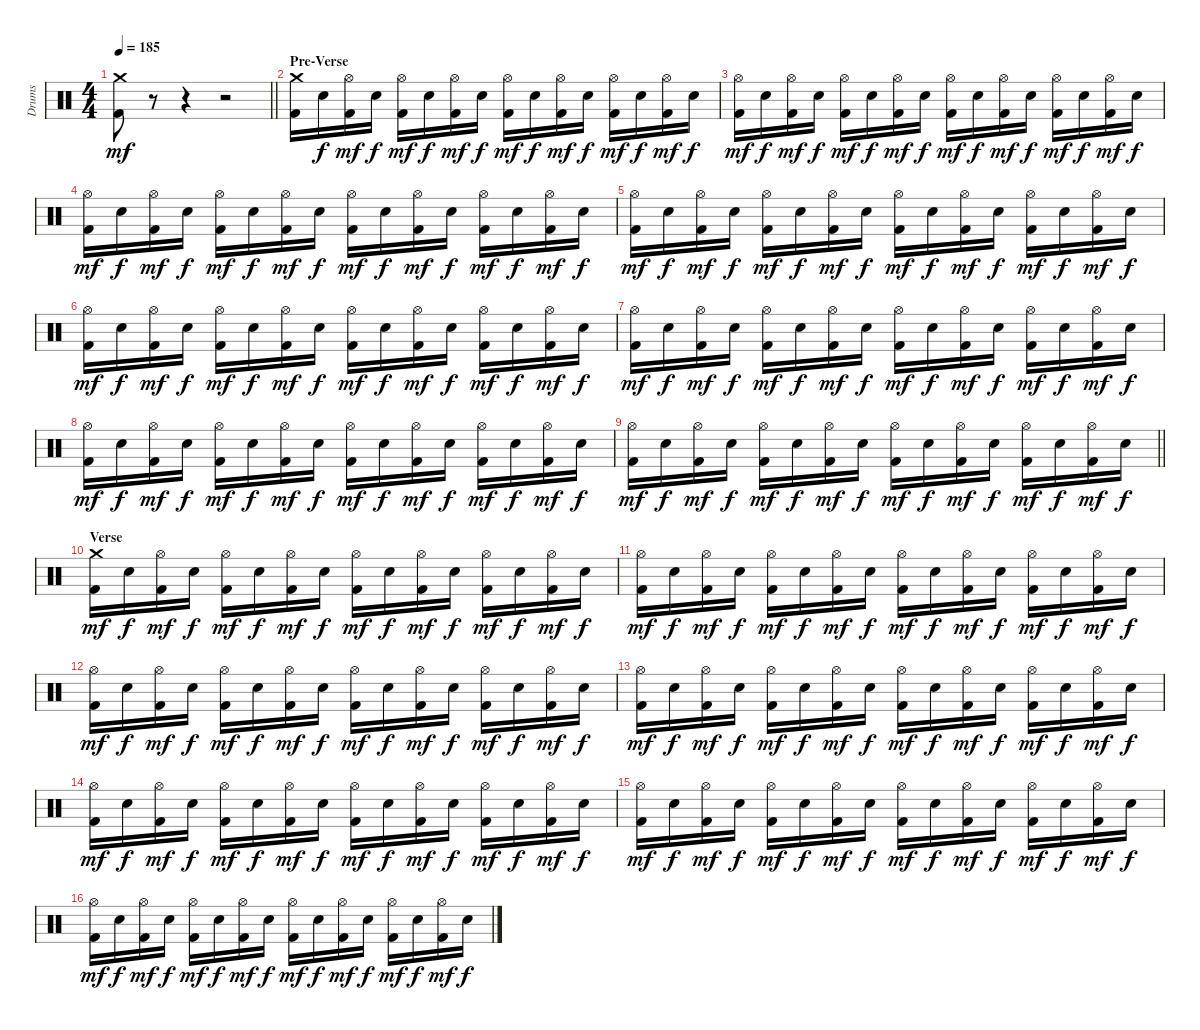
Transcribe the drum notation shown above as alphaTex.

\track ("Drums" "Drums") {instrument percussion}
\staff {score}
\articulation defaults
\ts (4 4)
\tempo 185
\clef neutral
\barLineRight lightlight
\ks c
("Crash medium (hit)"{pm} "Kick (hit) 2").8{dy mf} r.8 r.4 r.2 |
\section ("" "Pre-Verse")
("Crash medium (hit)" "Kick (hit) 2").16 "Electric Snare (hit)".16{dy f} ("Hi-Hat (open)" "Kick (hit) 2").16{dy mf} "Electric Snare (hit)".16{dy f} ("Hi-Hat (open)" "Kick (hit) 2").16{dy mf} "Electric Snare (hit)".16{dy f} ("Hi-Hat (open)" "Kick (hit) 2").16{dy mf} "Electric Snare (hit)".16{dy f} ("Hi-Hat (open)" "Kick (hit) 2").16{dy mf} "Electric Snare (hit)".16{dy f} ("Hi-Hat (open)" "Kick (hit) 2").16{dy mf} "Electric Snare (hit)".16{dy f} ("Hi-Hat (open)" "Kick (hit) 2").16{dy mf} "Electric Snare (hit)".16{dy f} ("Hi-Hat (open)" "Kick (hit) 2").16{dy mf} "Electric Snare (hit)".16{dy f} |
("Hi-Hat (open)" "Kick (hit) 2").16{dy mf} "Electric Snare (hit)".16{dy f} ("Hi-Hat (open)" "Kick (hit) 2").16{dy mf} "Electric Snare (hit)".16{dy f} ("Hi-Hat (open)" "Kick (hit) 2").16{dy mf} "Electric Snare (hit)".16{dy f} ("Hi-Hat (open)" "Kick (hit) 2").16{dy mf} "Electric Snare (hit)".16{dy f} ("Hi-Hat (open)" "Kick (hit) 2").16{dy mf} "Electric Snare (hit)".16{dy f} ("Hi-Hat (open)" "Kick (hit) 2").16{dy mf} "Electric Snare (hit)".16{dy f} ("Hi-Hat (open)" "Kick (hit) 2").16{dy mf} "Electric Snare (hit)".16{dy f} ("Hi-Hat (open)" "Kick (hit) 2").16{dy mf} "Electric Snare (hit)".16{dy f} |
("Hi-Hat (open)" "Kick (hit) 2").16{dy mf} "Electric Snare (hit)".16{dy f} ("Hi-Hat (open)" "Kick (hit) 2").16{dy mf} "Electric Snare (hit)".16{dy f} ("Hi-Hat (open)" "Kick (hit) 2").16{dy mf} "Electric Snare (hit)".16{dy f} ("Hi-Hat (open)" "Kick (hit) 2").16{dy mf} "Electric Snare (hit)".16{dy f} ("Hi-Hat (open)" "Kick (hit) 2").16{dy mf} "Electric Snare (hit)".16{dy f} ("Hi-Hat (open)" "Kick (hit) 2").16{dy mf} "Electric Snare (hit)".16{dy f} ("Hi-Hat (open)" "Kick (hit) 2").16{dy mf} "Electric Snare (hit)".16{dy f} ("Hi-Hat (open)" "Kick (hit) 2").16{dy mf} "Electric Snare (hit)".16{dy f} |
("Hi-Hat (open)" "Kick (hit) 2").16{dy mf} "Electric Snare (hit)".16{dy f} ("Hi-Hat (open)" "Kick (hit) 2").16{dy mf} "Electric Snare (hit)".16{dy f} ("Hi-Hat (open)" "Kick (hit) 2").16{dy mf} "Electric Snare (hit)".16{dy f} ("Hi-Hat (open)" "Kick (hit) 2").16{dy mf} "Electric Snare (hit)".16{dy f} ("Hi-Hat (open)" "Kick (hit) 2").16{dy mf} "Electric Snare (hit)".16{dy f} ("Hi-Hat (open)" "Kick (hit) 2").16{dy mf} "Electric Snare (hit)".16{dy f} ("Hi-Hat (open)" "Kick (hit) 2").16{dy mf} "Electric Snare (hit)".16{dy f} ("Hi-Hat (open)" "Kick (hit) 2").16{dy mf} "Electric Snare (hit)".16{dy f} |
("Hi-Hat (open)" "Kick (hit) 2").16{dy mf} "Electric Snare (hit)".16{dy f} ("Hi-Hat (open)" "Kick (hit) 2").16{dy mf} "Electric Snare (hit)".16{dy f} ("Hi-Hat (open)" "Kick (hit) 2").16{dy mf} "Electric Snare (hit)".16{dy f} ("Hi-Hat (open)" "Kick (hit) 2").16{dy mf} "Electric Snare (hit)".16{dy f} ("Hi-Hat (open)" "Kick (hit) 2").16{dy mf} "Electric Snare (hit)".16{dy f} ("Hi-Hat (open)" "Kick (hit) 2").16{dy mf} "Electric Snare (hit)".16{dy f} ("Hi-Hat (open)" "Kick (hit) 2").16{dy mf} "Electric Snare (hit)".16{dy f} ("Hi-Hat (open)" "Kick (hit) 2").16{dy mf} "Electric Snare (hit)".16{dy f} |
("Hi-Hat (open)" "Kick (hit) 2").16{dy mf} "Electric Snare (hit)".16{dy f} ("Hi-Hat (open)" "Kick (hit) 2").16{dy mf} "Electric Snare (hit)".16{dy f} ("Hi-Hat (open)" "Kick (hit) 2").16{dy mf} "Electric Snare (hit)".16{dy f} ("Hi-Hat (open)" "Kick (hit) 2").16{dy mf} "Electric Snare (hit)".16{dy f} ("Hi-Hat (open)" "Kick (hit) 2").16{dy mf} "Electric Snare (hit)".16{dy f} ("Hi-Hat (open)" "Kick (hit) 2").16{dy mf} "Electric Snare (hit)".16{dy f} ("Hi-Hat (open)" "Kick (hit) 2").16{dy mf} "Electric Snare (hit)".16{dy f} ("Hi-Hat (open)" "Kick (hit) 2").16{dy mf} "Electric Snare (hit)".16{dy f} |
("Hi-Hat (open)" "Kick (hit) 2").16{dy mf} "Electric Snare (hit)".16{dy f} ("Hi-Hat (open)" "Kick (hit) 2").16{dy mf} "Electric Snare (hit)".16{dy f} ("Hi-Hat (open)" "Kick (hit) 2").16{dy mf} "Electric Snare (hit)".16{dy f} ("Hi-Hat (open)" "Kick (hit) 2").16{dy mf} "Electric Snare (hit)".16{dy f} ("Hi-Hat (open)" "Kick (hit) 2").16{dy mf} "Electric Snare (hit)".16{dy f} ("Hi-Hat (open)" "Kick (hit) 2").16{dy mf} "Electric Snare (hit)".16{dy f} ("Hi-Hat (open)" "Kick (hit) 2").16{dy mf} "Electric Snare (hit)".16{dy f} ("Hi-Hat (open)" "Kick (hit) 2").16{dy mf} "Electric Snare (hit)".16{dy f} |
\barLineRight lightlight
("Hi-Hat (open)" "Kick (hit) 2").16{dy mf} "Electric Snare (hit)".16{dy f} ("Hi-Hat (open)" "Kick (hit) 2").16{dy mf} "Electric Snare (hit)".16{dy f} ("Hi-Hat (open)" "Kick (hit) 2").16{dy mf} "Electric Snare (hit)".16{dy f} ("Hi-Hat (open)" "Kick (hit) 2").16{dy mf} "Electric Snare (hit)".16{dy f} ("Hi-Hat (open)" "Kick (hit) 2").16{dy mf} "Electric Snare (hit)".16{dy f} ("Hi-Hat (open)" "Kick (hit) 2").16{dy mf} "Electric Snare (hit)".16{dy f} ("Hi-Hat (open)" "Kick (hit) 2").16{dy mf} "Electric Snare (hit)".16{dy f} ("Hi-Hat (open)" "Kick (hit) 2").16{dy mf} "Electric Snare (hit)".16{dy f} |
\section ("" "Verse")
("Crash medium (hit)" "Kick (hit) 2").16{dy mf} "Electric Snare (hit)".16{dy f} ("Hi-Hat (open)" "Kick (hit) 2").16{dy mf} "Electric Snare (hit)".16{dy f} ("Hi-Hat (open)" "Kick (hit) 2").16{dy mf} "Electric Snare (hit)".16{dy f} ("Hi-Hat (open)" "Kick (hit) 2").16{dy mf} "Electric Snare (hit)".16{dy f} ("Hi-Hat (open)" "Kick (hit) 2").16{dy mf} "Electric Snare (hit)".16{dy f} ("Hi-Hat (open)" "Kick (hit) 2").16{dy mf} "Electric Snare (hit)".16{dy f} ("Hi-Hat (open)" "Kick (hit) 2").16{dy mf} "Electric Snare (hit)".16{dy f} ("Hi-Hat (open)" "Kick (hit) 2").16{dy mf} "Electric Snare (hit)".16{dy f} |
("Hi-Hat (open)" "Kick (hit) 2").16{dy mf} "Electric Snare (hit)".16{dy f} ("Hi-Hat (open)" "Kick (hit) 2").16{dy mf} "Electric Snare (hit)".16{dy f} ("Hi-Hat (open)" "Kick (hit) 2").16{dy mf} "Electric Snare (hit)".16{dy f} ("Hi-Hat (open)" "Kick (hit) 2").16{dy mf} "Electric Snare (hit)".16{dy f} ("Hi-Hat (open)" "Kick (hit) 2").16{dy mf} "Electric Snare (hit)".16{dy f} ("Hi-Hat (open)" "Kick (hit) 2").16{dy mf} "Electric Snare (hit)".16{dy f} ("Hi-Hat (open)" "Kick (hit) 2").16{dy mf} "Electric Snare (hit)".16{dy f} ("Hi-Hat (open)" "Kick (hit) 2").16{dy mf} "Electric Snare (hit)".16{dy f} |
("Hi-Hat (open)" "Kick (hit) 2").16{dy mf} "Electric Snare (hit)".16{dy f} ("Hi-Hat (open)" "Kick (hit) 2").16{dy mf} "Electric Snare (hit)".16{dy f} ("Hi-Hat (open)" "Kick (hit) 2").16{dy mf} "Electric Snare (hit)".16{dy f} ("Hi-Hat (open)" "Kick (hit) 2").16{dy mf} "Electric Snare (hit)".16{dy f} ("Hi-Hat (open)" "Kick (hit) 2").16{dy mf} "Electric Snare (hit)".16{dy f} ("Hi-Hat (open)" "Kick (hit) 2").16{dy mf} "Electric Snare (hit)".16{dy f} ("Hi-Hat (open)" "Kick (hit) 2").16{dy mf} "Electric Snare (hit)".16{dy f} ("Hi-Hat (open)" "Kick (hit) 2").16{dy mf} "Electric Snare (hit)".16{dy f} |
("Hi-Hat (open)" "Kick (hit) 2").16{dy mf} "Electric Snare (hit)".16{dy f} ("Hi-Hat (open)" "Kick (hit) 2").16{dy mf} "Electric Snare (hit)".16{dy f} ("Hi-Hat (open)" "Kick (hit) 2").16{dy mf} "Electric Snare (hit)".16{dy f} ("Hi-Hat (open)" "Kick (hit) 2").16{dy mf} "Electric Snare (hit)".16{dy f} ("Hi-Hat (open)" "Kick (hit) 2").16{dy mf} "Electric Snare (hit)".16{dy f} ("Hi-Hat (open)" "Kick (hit) 2").16{dy mf} "Electric Snare (hit)".16{dy f} ("Hi-Hat (open)" "Kick (hit) 2").16{dy mf} "Electric Snare (hit)".16{dy f} ("Hi-Hat (open)" "Kick (hit) 2").16{dy mf} "Electric Snare (hit)".16{dy f} |
("Hi-Hat (open)" "Kick (hit) 2").16{dy mf} "Electric Snare (hit)".16{dy f} ("Hi-Hat (open)" "Kick (hit) 2").16{dy mf} "Electric Snare (hit)".16{dy f} ("Hi-Hat (open)" "Kick (hit) 2").16{dy mf} "Electric Snare (hit)".16{dy f} ("Hi-Hat (open)" "Kick (hit) 2").16{dy mf} "Electric Snare (hit)".16{dy f} ("Hi-Hat (open)" "Kick (hit) 2").16{dy mf} "Electric Snare (hit)".16{dy f} ("Hi-Hat (open)" "Kick (hit) 2").16{dy mf} "Electric Snare (hit)".16{dy f} ("Hi-Hat (open)" "Kick (hit) 2").16{dy mf} "Electric Snare (hit)".16{dy f} ("Hi-Hat (open)" "Kick (hit) 2").16{dy mf} "Electric Snare (hit)".16{dy f} |
("Hi-Hat (open)" "Kick (hit) 2").16{dy mf} "Electric Snare (hit)".16{dy f} ("Hi-Hat (open)" "Kick (hit) 2").16{dy mf} "Electric Snare (hit)".16{dy f} ("Hi-Hat (open)" "Kick (hit) 2").16{dy mf} "Electric Snare (hit)".16{dy f} ("Hi-Hat (open)" "Kick (hit) 2").16{dy mf} "Electric Snare (hit)".16{dy f} ("Hi-Hat (open)" "Kick (hit) 2").16{dy mf} "Electric Snare (hit)".16{dy f} ("Hi-Hat (open)" "Kick (hit) 2").16{dy mf} "Electric Snare (hit)".16{dy f} ("Hi-Hat (open)" "Kick (hit) 2").16{dy mf} "Electric Snare (hit)".16{dy f} ("Hi-Hat (open)" "Kick (hit) 2").16{dy mf} "Electric Snare (hit)".16{dy f} |
("Hi-Hat (open)" "Kick (hit) 2").16{dy mf} "Electric Snare (hit)".16{dy f} ("Hi-Hat (open)" "Kick (hit) 2").16{dy mf} "Electric Snare (hit)".16{dy f} ("Hi-Hat (open)" "Kick (hit) 2").16{dy mf} "Electric Snare (hit)".16{dy f} ("Hi-Hat (open)" "Kick (hit) 2").16{dy mf} "Electric Snare (hit)".16{dy f} ("Hi-Hat (open)" "Kick (hit) 2").16{dy mf} "Electric Snare (hit)".16{dy f} ("Hi-Hat (open)" "Kick (hit) 2").16{dy mf} "Electric Snare (hit)".16{dy f} ("Hi-Hat (open)" "Kick (hit) 2").16{dy mf} "Electric Snare (hit)".16{dy f} ("Hi-Hat (open)" "Kick (hit) 2").16{dy mf} "Electric Snare (hit)".16{dy f}
